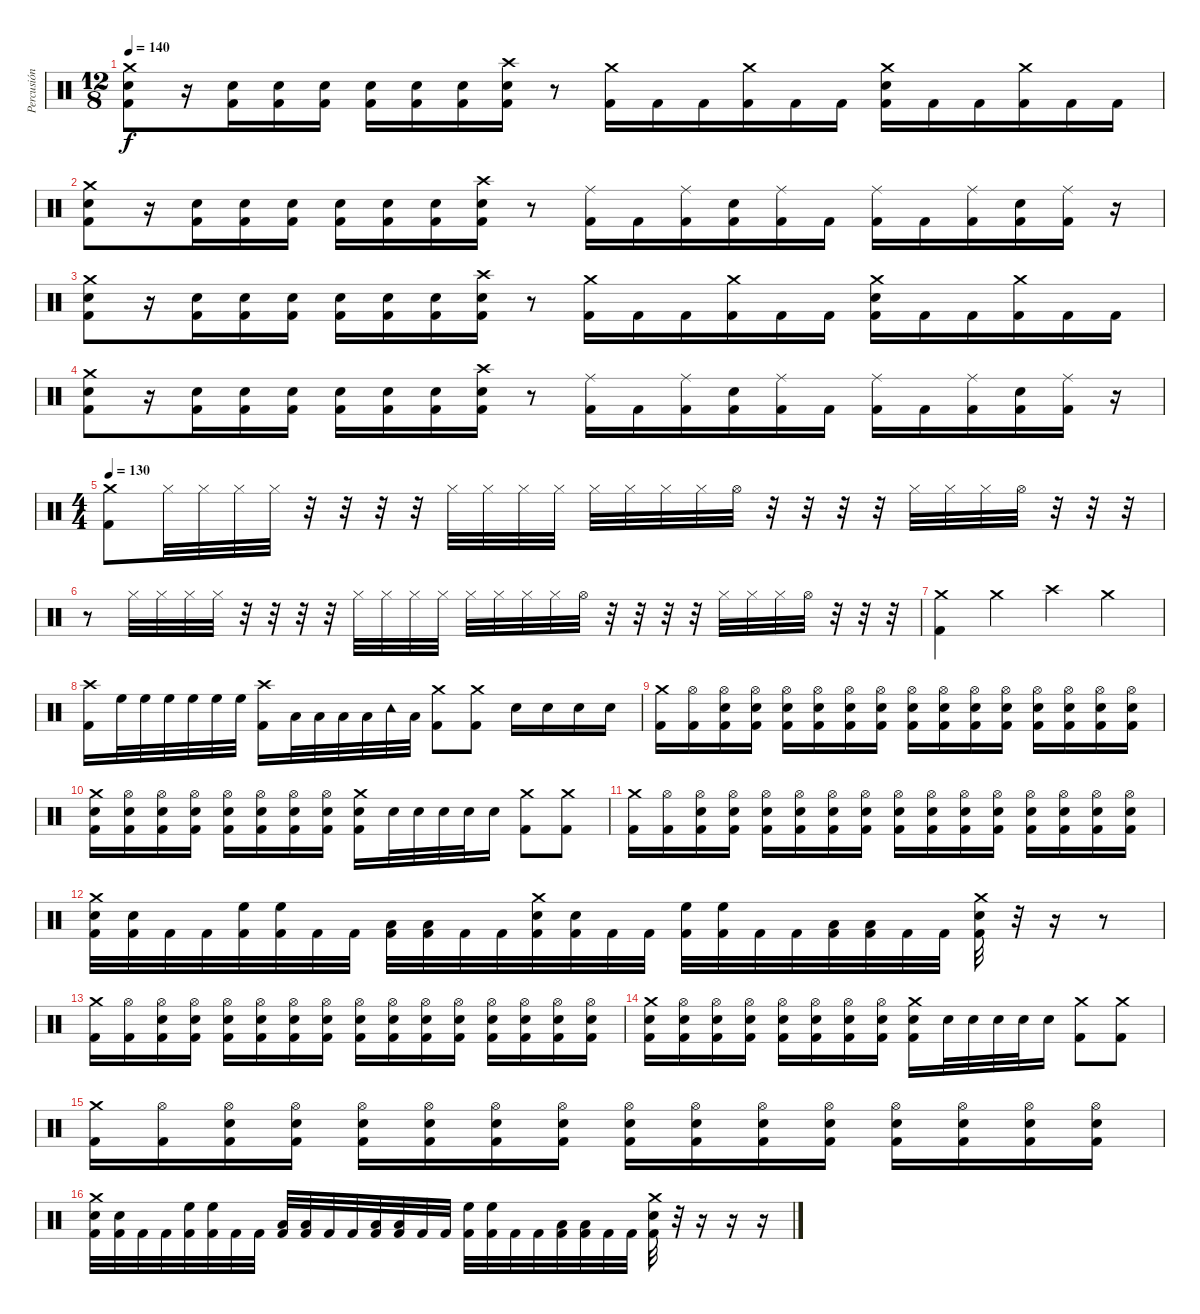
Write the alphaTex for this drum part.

\track ("Percusión" "Percusión") {instrument percussion}
\staff {score}
\articulation defaults
\ts (12 8)
\tempo 140
\clef neutral
\ks c
("Crash medium (hit)" "Electric Snare (hit)" "Kick (hit) 2").8{dy f} r.16 ("Electric Snare (hit)" "Kick (hit) 2").16 ("Electric Snare (hit)" "Kick (hit) 2").16 ("Electric Snare (hit)" "Kick (hit) 2").16 ("Electric Snare (hit)" "Kick (hit) 2").16 ("Electric Snare (hit)" "Kick (hit) 2").16 ("Electric Snare (hit)" "Kick (hit) 2").16 ("Crash high (hit)" "Electric Snare (hit)" "Kick (hit) 2").16 r.8 ("Crash medium (hit)" "Kick (hit) 2").16 "Kick (hit) 2".16 "Kick (hit) 2".16 ("Crash medium (hit)" "Kick (hit) 2").16 "Kick (hit) 2".16 "Kick (hit) 2".16 ("Crash medium (hit)" "Electric Snare (hit)" "Kick (hit) 2").16 "Kick (hit) 2".16 "Kick (hit) 2".16 ("Crash medium (hit)" "Kick (hit) 2").16 "Kick (hit) 2".16 "Kick (hit) 2".16 |
("Crash medium (hit)" "Electric Snare (hit)" "Kick (hit) 2").8 r.16 ("Electric Snare (hit)" "Kick (hit) 2").16 ("Electric Snare (hit)" "Kick (hit) 2").16 ("Electric Snare (hit)" "Kick (hit) 2").16 ("Electric Snare (hit)" "Kick (hit) 2").16 ("Electric Snare (hit)" "Kick (hit) 2").16 ("Electric Snare (hit)" "Kick (hit) 2").16 ("Crash high (hit)" "Electric Snare (hit)" "Kick (hit) 2").16 r.8 ("Ride (middle)" "Kick (hit) 2").16 "Kick (hit) 2".16 ("Ride (middle)" "Kick (hit) 2").16 ("Electric Snare (hit)" "Kick (hit) 2").16 ("Ride (middle)" "Kick (hit) 2").16 "Kick (hit) 2".16 ("Ride (middle)" "Kick (hit) 2").16 "Kick (hit) 2".16 ("Ride (middle)" "Kick (hit) 2").16 ("Electric Snare (hit)" "Kick (hit) 2").16 ("Ride (middle)" "Kick (hit) 2").16 r.16 |
("Crash medium (hit)" "Electric Snare (hit)" "Kick (hit) 2").8 r.16 ("Electric Snare (hit)" "Kick (hit) 2").16 ("Electric Snare (hit)" "Kick (hit) 2").16 ("Electric Snare (hit)" "Kick (hit) 2").16 ("Electric Snare (hit)" "Kick (hit) 2").16 ("Electric Snare (hit)" "Kick (hit) 2").16 ("Electric Snare (hit)" "Kick (hit) 2").16 ("Crash high (hit)" "Electric Snare (hit)" "Kick (hit) 2").16 r.8 ("Crash medium (hit)" "Kick (hit) 2").16 "Kick (hit) 2".16 "Kick (hit) 2".16 ("Crash medium (hit)" "Kick (hit) 2").16 "Kick (hit) 2".16 "Kick (hit) 2".16 ("Crash medium (hit)" "Electric Snare (hit)" "Kick (hit) 2").16 "Kick (hit) 2".16 "Kick (hit) 2".16 ("Crash medium (hit)" "Kick (hit) 2").16 "Kick (hit) 2".16 "Kick (hit) 2".16 |
("Crash medium (hit)" "Electric Snare (hit)" "Kick (hit) 2").8 r.16 ("Electric Snare (hit)" "Kick (hit) 2").16 ("Electric Snare (hit)" "Kick (hit) 2").16 ("Electric Snare (hit)" "Kick (hit) 2").16 ("Electric Snare (hit)" "Kick (hit) 2").16 ("Electric Snare (hit)" "Kick (hit) 2").16 ("Electric Snare (hit)" "Kick (hit) 2").16 ("Crash high (hit)" "Electric Snare (hit)" "Kick (hit) 2").16 r.8 ("Ride (middle)" "Kick (hit) 2").16 "Kick (hit) 2".16 ("Ride (middle)" "Kick (hit) 2").16 ("Electric Snare (hit)" "Kick (hit) 2").16 ("Ride (middle)" "Kick (hit) 2").16 "Kick (hit) 2".16 ("Ride (middle)" "Kick (hit) 2").16 "Kick (hit) 2".16 ("Ride (middle)" "Kick (hit) 2").16 ("Electric Snare (hit)" "Kick (hit) 2").16 ("Ride (middle)" "Kick (hit) 2").16 r.16 |
\ts (4 4)
\tempo 130
("Crash medium (hit)" "Kick (hit) 2").8 "Hi-Hat (closed)".32 "Hi-Hat (closed)".32 "Hi-Hat (closed)".32 "Hi-Hat (closed)".32 r.32 r.32 r.32 r.32 "Hi-Hat (closed)".32 "Hi-Hat (closed)".32 "Hi-Hat (closed)".32 "Hi-Hat (closed)".32 "Hi-Hat (closed)".32 "Hi-Hat (closed)".32 "Hi-Hat (closed)".32 "Hi-Hat (closed)".32 "Hi-Hat (open)".32 r.32 r.32 r.32 r.32 "Hi-Hat (closed)".32 "Hi-Hat (closed)".32 "Hi-Hat (closed)".32 "Hi-Hat (open)".32 r.32 r.32 r.32 |
r.8 "Hi-Hat (closed)".32 "Hi-Hat (closed)".32 "Hi-Hat (closed)".32 "Hi-Hat (closed)".32 r.32 r.32 r.32 r.32 "Hi-Hat (closed)".32 "Hi-Hat (closed)".32 "Hi-Hat (closed)".32 "Hi-Hat (closed)".32 "Hi-Hat (closed)".32 "Hi-Hat (closed)".32 "Hi-Hat (closed)".32 "Hi-Hat (closed)".32 "Hi-Hat (open)".32 r.32 r.32 r.32 r.32 "Hi-Hat (closed)".32 "Hi-Hat (closed)".32 "Hi-Hat (closed)".32 "Hi-Hat (open)".32 r.32 r.32 r.32 |
("Crash medium (hit)" "Kick (hit) 2").4 "Crash medium (hit)".4 "Crash high (hit)".4 "Crash medium (hit)".4 |
("Crash high (hit)" "Kick (hit) 2").16 "High Floor Tom (hit)".32 "High Floor Tom (hit)".32 "High Floor Tom (hit)".32 "High Floor Tom (hit)".32 "High Floor Tom (hit)".32 "High Floor Tom (hit)".32 ("Crash high (hit)" "Kick (hit) 2").16 "Low Tom (hit)".32 "Low Tom (hit)".32 "Low Tom (hit)".32 "Low Tom (hit)".32 "Tambourine (hit)".32 "Low Tom (hit)".32 ("Crash medium (hit)" "Kick (hit) 2").8 ("Crash medium (hit)" "Kick (hit) 2").8 "Electric Snare (hit)".16 "Electric Snare (hit)".16 "Electric Snare (hit)".16 "Electric Snare (hit)".16 |
("Crash medium (hit)" "Kick (hit) 2").16 ("Hi-Hat (open)" "Kick (hit) 2").16 ("Hi-Hat (open)" "Electric Snare (hit)" "Kick (hit) 2").16 ("Hi-Hat (open)" "Electric Snare (hit)" "Kick (hit) 2").16 ("Hi-Hat (open)" "Electric Snare (hit)" "Kick (hit) 2").16 ("Hi-Hat (open)" "Electric Snare (hit)" "Kick (hit) 2").16 ("Hi-Hat (open)" "Electric Snare (hit)" "Kick (hit) 2").16 ("Hi-Hat (open)" "Electric Snare (hit)" "Kick (hit) 2").16 ("Hi-Hat (open)" "Electric Snare (hit)" "Kick (hit) 2").16 ("Hi-Hat (open)" "Electric Snare (hit)" "Kick (hit) 2").16 ("Hi-Hat (open)" "Electric Snare (hit)" "Kick (hit) 2").16 ("Hi-Hat (open)" "Electric Snare (hit)" "Kick (hit) 2").16 ("Hi-Hat (open)" "Electric Snare (hit)" "Kick (hit) 2").16 ("Hi-Hat (open)" "Electric Snare (hit)" "Kick (hit) 2").16 ("Hi-Hat (open)" "Electric Snare (hit)" "Kick (hit) 2").16 ("Hi-Hat (open)" "Electric Snare (hit)" "Kick (hit) 2").16 |
("Crash medium (hit)" "Electric Snare (hit)" "Kick (hit) 2").16 ("Hi-Hat (open)" "Electric Snare (hit)" "Kick (hit) 2").16 ("Hi-Hat (open)" "Electric Snare (hit)" "Kick (hit) 2").16 ("Hi-Hat (open)" "Electric Snare (hit)" "Kick (hit) 2").16 ("Hi-Hat (open)" "Electric Snare (hit)" "Kick (hit) 2").16 ("Hi-Hat (open)" "Electric Snare (hit)" "Kick (hit) 2").16 ("Hi-Hat (open)" "Electric Snare (hit)" "Kick (hit) 2").16 ("Hi-Hat (open)" "Electric Snare (hit)" "Kick (hit) 2").16 ("Crash medium (hit)" "Electric Snare (hit)" "Kick (hit) 2").16 "Electric Snare (hit)".32 "Electric Snare (hit)".32 "Electric Snare (hit)".32 "Electric Snare (hit)".32 "Electric Snare (hit)".16 ("Crash medium (hit)" "Kick (hit) 2").8 ("Crash medium (hit)" "Kick (hit) 2").8 |
("Crash medium (hit)" "Kick (hit) 2").16 ("Hi-Hat (open)" "Kick (hit) 2").16 ("Hi-Hat (open)" "Electric Snare (hit)" "Kick (hit) 2").16 ("Hi-Hat (open)" "Electric Snare (hit)" "Kick (hit) 2").16 ("Hi-Hat (open)" "Electric Snare (hit)" "Kick (hit) 2").16 ("Hi-Hat (open)" "Electric Snare (hit)" "Kick (hit) 2").16 ("Hi-Hat (open)" "Electric Snare (hit)" "Kick (hit) 2").16 ("Hi-Hat (open)" "Electric Snare (hit)" "Kick (hit) 2").16 ("Hi-Hat (open)" "Electric Snare (hit)" "Kick (hit) 2").16 ("Hi-Hat (open)" "Electric Snare (hit)" "Kick (hit) 2").16 ("Hi-Hat (open)" "Electric Snare (hit)" "Kick (hit) 2").16 ("Hi-Hat (open)" "Electric Snare (hit)" "Kick (hit) 2").16 ("Hi-Hat (open)" "Electric Snare (hit)" "Kick (hit) 2").16 ("Hi-Hat (open)" "Electric Snare (hit)" "Kick (hit) 2").16 ("Hi-Hat (open)" "Electric Snare (hit)" "Kick (hit) 2").16 ("Hi-Hat (open)" "Electric Snare (hit)" "Kick (hit) 2").16 |
("Crash medium (hit)" "Electric Snare (hit)" "Kick (hit) 2").32 ("Electric Snare (hit)" "Kick (hit) 2").32 "Kick (hit) 2".32 "Kick (hit) 2".32 ("High Floor Tom (hit)" "Kick (hit) 2").32 ("High Floor Tom (hit)" "Kick (hit) 2").32 "Kick (hit) 2".32 "Kick (hit) 2".32 ("Low Tom (hit)" "Kick (hit) 2").32 ("Low Tom (hit)" "Kick (hit) 2").32 "Kick (hit) 2".32 "Kick (hit) 2".32 ("Crash medium (hit)" "Electric Snare (hit)" "Kick (hit) 2").32 ("Electric Snare (hit)" "Kick (hit) 2").32 "Kick (hit) 2".32 "Kick (hit) 2".32 ("High Floor Tom (hit)" "Kick (hit) 2").32 ("High Floor Tom (hit)" "Kick (hit) 2").32 "Kick (hit) 2".32 "Kick (hit) 2".32 ("Low Tom (hit)" "Kick (hit) 2").32 ("Low Tom (hit)" "Kick (hit) 2").32 "Kick (hit) 2".32 "Kick (hit) 2".32 ("Crash medium (hit)" "Electric Snare (hit)" "Kick (hit) 2").32 r.32 r.16 r.8 |
("Crash medium (hit)" "Kick (hit) 2").16 ("Hi-Hat (open)" "Kick (hit) 2").16 ("Hi-Hat (open)" "Electric Snare (hit)" "Kick (hit) 2").16 ("Hi-Hat (open)" "Electric Snare (hit)" "Kick (hit) 2").16 ("Hi-Hat (open)" "Electric Snare (hit)" "Kick (hit) 2").16 ("Hi-Hat (open)" "Electric Snare (hit)" "Kick (hit) 2").16 ("Hi-Hat (open)" "Electric Snare (hit)" "Kick (hit) 2").16 ("Hi-Hat (open)" "Electric Snare (hit)" "Kick (hit) 2").16 ("Hi-Hat (open)" "Electric Snare (hit)" "Kick (hit) 2").16 ("Hi-Hat (open)" "Electric Snare (hit)" "Kick (hit) 2").16 ("Hi-Hat (open)" "Electric Snare (hit)" "Kick (hit) 2").16 ("Hi-Hat (open)" "Electric Snare (hit)" "Kick (hit) 2").16 ("Hi-Hat (open)" "Electric Snare (hit)" "Kick (hit) 2").16 ("Hi-Hat (open)" "Electric Snare (hit)" "Kick (hit) 2").16 ("Hi-Hat (open)" "Electric Snare (hit)" "Kick (hit) 2").16 ("Hi-Hat (open)" "Electric Snare (hit)" "Kick (hit) 2").16 |
("Crash medium (hit)" "Electric Snare (hit)" "Kick (hit) 2").16 ("Hi-Hat (open)" "Electric Snare (hit)" "Kick (hit) 2").16 ("Hi-Hat (open)" "Electric Snare (hit)" "Kick (hit) 2").16 ("Hi-Hat (open)" "Electric Snare (hit)" "Kick (hit) 2").16 ("Hi-Hat (open)" "Electric Snare (hit)" "Kick (hit) 2").16 ("Hi-Hat (open)" "Electric Snare (hit)" "Kick (hit) 2").16 ("Hi-Hat (open)" "Electric Snare (hit)" "Kick (hit) 2").16 ("Hi-Hat (open)" "Electric Snare (hit)" "Kick (hit) 2").16 ("Crash medium (hit)" "Electric Snare (hit)" "Kick (hit) 2").16 "Electric Snare (hit)".32 "Electric Snare (hit)".32 "Electric Snare (hit)".32 "Electric Snare (hit)".32 "Electric Snare (hit)".16 ("Crash medium (hit)" "Kick (hit) 2").8 ("Crash medium (hit)" "Kick (hit) 2").8 |
("Crash medium (hit)" "Kick (hit) 2").16 ("Hi-Hat (open)" "Kick (hit) 2").16 ("Hi-Hat (open)" "Electric Snare (hit)" "Kick (hit) 2").16 ("Hi-Hat (open)" "Electric Snare (hit)" "Kick (hit) 2").16 ("Hi-Hat (open)" "Electric Snare (hit)" "Kick (hit) 2").16 ("Hi-Hat (open)" "Electric Snare (hit)" "Kick (hit) 2").16 ("Hi-Hat (open)" "Electric Snare (hit)" "Kick (hit) 2").16 ("Hi-Hat (open)" "Electric Snare (hit)" "Kick (hit) 2").16 ("Hi-Hat (open)" "Electric Snare (hit)" "Kick (hit) 2").16 ("Hi-Hat (open)" "Electric Snare (hit)" "Kick (hit) 2").16 ("Hi-Hat (open)" "Electric Snare (hit)" "Kick (hit) 2").16 ("Hi-Hat (open)" "Electric Snare (hit)" "Kick (hit) 2").16 ("Hi-Hat (open)" "Electric Snare (hit)" "Kick (hit) 2").16 ("Hi-Hat (open)" "Electric Snare (hit)" "Kick (hit) 2").16 ("Hi-Hat (open)" "Electric Snare (hit)" "Kick (hit) 2").16 ("Hi-Hat (open)" "Electric Snare (hit)" "Kick (hit) 2").16 |
("Crash medium (hit)" "Electric Snare (hit)" "Kick (hit) 2").32 ("Electric Snare (hit)" "Kick (hit) 2").32 "Kick (hit) 2".32 "Kick (hit) 2".32 ("High Floor Tom (hit)" "Kick (hit) 2").32 ("High Floor Tom (hit)" "Kick (hit) 2").32 "Kick (hit) 2".32 "Kick (hit) 2".32 ("Low Tom (hit)" "Kick (hit) 2").32 ("Low Tom (hit)" "Kick (hit) 2").32 "Kick (hit) 2".32 "Kick (hit) 2".32 ("Low Floor Tom (hit)" "Kick (hit) 2").32 ("Low Floor Tom (hit)" "Kick (hit) 2").32 "Kick (hit) 2".32 "Kick (hit) 2".32 ("High Floor Tom (hit)" "Kick (hit) 2").32 ("High Floor Tom (hit)" "Kick (hit) 2").32 "Kick (hit) 2".32 "Kick (hit) 2".32 ("Low Tom (hit)" "Kick (hit) 2").32 ("Low Tom (hit)" "Kick (hit) 2").32 "Kick (hit) 2".32 "Kick (hit) 2".32 ("Crash medium (hit)" "Electric Snare (hit)" "Kick (hit) 2").32 r.32 r.16 r.16 r.16
